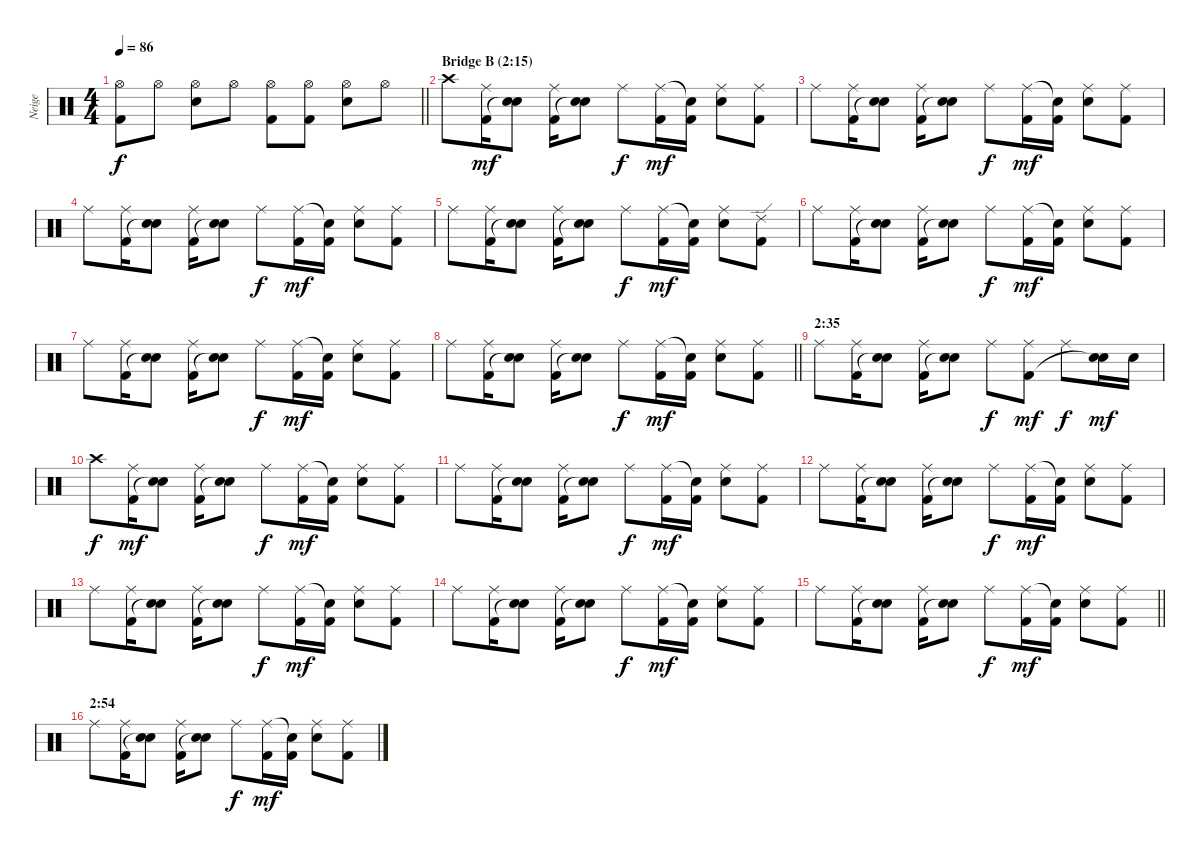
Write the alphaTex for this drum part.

\track ("Neige" "Neige") {instrument percussion}
\staff {score}
\articulation defaults
\ts (4 4)
\tempo 86
\clef neutral
\barLineRight lightlight
\ks c
("Hi-Hat (open)" "Kick (hit) 2").8{dy f} "Hi-Hat (open)".8 ("Snare (hit) 2" "Hi-Hat (open)").8 "Hi-Hat (open)".8 ("Hi-Hat (open)" "Kick (hit) 2").8 ("Hi-Hat (open)" "Kick (hit) 2").8 ("Snare (hit) 2" "Hi-Hat (open)").8 "Hi-Hat (open)".8 |
\section ("" "Bridge B (2:15)")
"Crash high (hit)".8 ("Ride (middle)" "Kick (hit) 2").16{dy mf} ("Snare (hit) 2" "Snare (hit)"{t}).8 ("Ride (middle)" "Kick (hit) 2").16 ("Snare (hit) 2" "Snare (hit)"{t}).8 "Ride (middle)".8{dy f} ("Ride (middle)" "Kick (hit) 2").16{dy mf} ("Snare (hit)"{t} "Kick (hit) 2").16 ("Snare (hit) 2" "Ride (middle)").8 ("Ride (middle)" "Kick (hit) 2").8 |
"Ride (middle)".8 ("Ride (middle)" "Kick (hit) 2").16 ("Snare (hit) 2" "Snare (hit)"{t}).8 ("Ride (middle)" "Kick (hit) 2").16 ("Snare (hit) 2" "Snare (hit)"{t}).8 "Ride (middle)".8{dy f} ("Ride (middle)" "Kick (hit) 2").16{dy mf} ("Snare (hit)"{t} "Kick (hit) 2").16 ("Snare (hit) 2" "Ride (middle)").8 ("Ride (middle)" "Kick (hit) 2").8 |
"Ride (middle)".8 ("Ride (middle)" "Kick (hit) 2").16 ("Snare (hit) 2" "Snare (hit)"{t}).8 ("Ride (middle)" "Kick (hit) 2").16 ("Snare (hit) 2" "Snare (hit)"{t}).8 "Ride (middle)".8{dy f} ("Ride (middle)" "Kick (hit) 2").16{dy mf} ("Snare (hit)"{t} "Kick (hit) 2").16 ("Snare (hit) 2" "Ride (middle)").8 ("Ride (middle)" "Kick (hit) 2").8 |
"Ride (middle)".8 ("Ride (middle)" "Kick (hit) 2").16 ("Snare (hit) 2" "Snare (hit)"{t}).8 ("Ride (middle)" "Kick (hit) 2").16 ("Snare (hit) 2" "Snare (hit)"{t}).8 "Ride (middle)".8{dy f} ("Ride (middle)" "Kick (hit) 2").16{dy mf} ("Snare (hit)"{t} "Kick (hit) 2").16 ("Snare (hit) 2" "Ride (middle)").8 ("Ride (edge) 2" "Kick (hit) 2").8 |
"Ride (middle)".8 ("Ride (middle)" "Kick (hit) 2").16 ("Snare (hit) 2" "Snare (hit)"{t}).8 ("Ride (middle)" "Kick (hit) 2").16 ("Snare (hit) 2" "Snare (hit)"{t}).8 "Ride (middle)".8{dy f} ("Ride (middle)" "Kick (hit) 2").16{dy mf} ("Snare (hit)"{t} "Kick (hit) 2").16 ("Snare (hit) 2" "Ride (middle)").8 ("Ride (middle)" "Kick (hit) 2").8 |
"Ride (middle)".8 ("Ride (middle)" "Kick (hit) 2").16 ("Snare (hit) 2" "Snare (hit)"{t}).8 ("Ride (middle)" "Kick (hit) 2").16 ("Snare (hit) 2" "Snare (hit)"{t}).8 "Ride (middle)".8{dy f} ("Ride (middle)" "Kick (hit) 2").16{dy mf} ("Snare (hit)"{t} "Kick (hit) 2").16 ("Snare (hit) 2" "Ride (middle)").8 ("Ride (middle)" "Kick (hit) 2").8 |
\barLineRight lightlight "Ride (middle)".8
("Ride (middle)" "Kick (hit) 2").16 ("Snare (hit) 2" "Snare (hit)"{t}).8 ("Ride (middle)" "Kick (hit) 2").16 ("Snare (hit) 2" "Snare (hit)"{t}).8 "Ride (middle)".8{dy f} ("Ride (middle)" "Kick (hit) 2").16{dy mf} ("Snare (hit)"{t} "Kick (hit) 2").16 ("Snare (hit) 2" "Ride (middle)").8 ("Ride (middle)" "Kick (hit) 2").8 |
\section ("" "2:35")
"Ride (middle)".8 ("Ride (middle)" "Kick (hit) 2").16 ("Snare (hit) 2" "Snare (hit)"{t}).8 ("Ride (middle)" "Kick (hit) 2").16 ("Snare (hit) 2" "Snare (hit)"{t}).8 "Ride (middle)".8{dy f} ("Ride (middle)" "Kick (hit) 2").8{dy mf} "Ride (middle)".8{dy f} ("Snare (hit) 2" "Snare (hit)"{t}).16{dy mf} "Snare (hit) 2".16 |
"Crash high (hit)".8{dy f} ("Ride (middle)" "Kick (hit) 2").16{dy mf} ("Snare (hit) 2" "Snare (hit)"{t}).8 ("Ride (middle)" "Kick (hit) 2").16 ("Snare (hit) 2" "Snare (hit)"{t}).8 "Ride (middle)".8{dy f} ("Ride (middle)" "Kick (hit) 2").16{dy mf} ("Snare (hit)"{t} "Kick (hit) 2").16 ("Snare (hit) 2" "Ride (middle)").8 ("Ride (middle)" "Kick (hit) 2").8 |
"Ride (middle)".8 ("Ride (middle)" "Kick (hit) 2").16 ("Snare (hit) 2" "Snare (hit)"{t}).8 ("Ride (middle)" "Kick (hit) 2").16 ("Snare (hit) 2" "Snare (hit)"{t}).8 "Ride (middle)".8{dy f} ("Ride (middle)" "Kick (hit) 2").16{dy mf} ("Snare (hit)"{t} "Kick (hit) 2").16 ("Snare (hit) 2" "Ride (middle)").8 ("Ride (middle)" "Kick (hit) 2").8 |
"Ride (middle)".8 ("Ride (middle)" "Kick (hit) 2").16 ("Snare (hit) 2" "Snare (hit)"{t}).8 ("Ride (middle)" "Kick (hit) 2").16 ("Snare (hit) 2" "Snare (hit)"{t}).8 "Ride (middle)".8{dy f} ("Ride (middle)" "Kick (hit) 2").16{dy mf} ("Snare (hit)"{t} "Kick (hit) 2").16 ("Snare (hit) 2" "Ride (middle)").8 ("Ride (middle)" "Kick (hit) 2").8 |
"Ride (middle)".8 ("Ride (middle)" "Kick (hit) 2").16 ("Snare (hit) 2" "Snare (hit)"{t}).8 ("Ride (middle)" "Kick (hit) 2").16 ("Snare (hit) 2" "Snare (hit)"{t}).8 "Ride (middle)".8{dy f} ("Ride (middle)" "Kick (hit) 2").16{dy mf} ("Snare (hit)"{t} "Kick (hit) 2").16 ("Snare (hit) 2" "Ride (middle)").8 ("Ride (middle)" "Kick (hit) 2").8 |
"Ride (middle)".8 ("Ride (middle)" "Kick (hit) 2").16 ("Snare (hit) 2" "Snare (hit)"{t}).8 ("Ride (middle)" "Kick (hit) 2").16 ("Snare (hit) 2" "Snare (hit)"{t}).8 "Ride (middle)".8{dy f} ("Ride (middle)" "Kick (hit) 2").16{dy mf} ("Snare (hit)"{t} "Kick (hit) 2").16 ("Snare (hit) 2" "Ride (middle)").8 ("Ride (middle)" "Kick (hit) 2").8 |
\barLineRight lightlight "Ride (middle)".8
("Ride (middle)" "Kick (hit) 2").16 ("Snare (hit) 2" "Snare (hit)"{t}).8 ("Ride (middle)" "Kick (hit) 2").16 ("Snare (hit) 2" "Snare (hit)"{t}).8 "Ride (middle)".8{dy f} ("Ride (middle)" "Kick (hit) 2").16{dy mf} ("Snare (hit)"{t} "Kick (hit) 2").16 ("Snare (hit) 2" "Ride (middle)").8 ("Ride (middle)" "Kick (hit) 2").8 |
\section ("" "2:54")
"Ride (middle)".8 ("Ride (middle)" "Kick (hit) 2").16 ("Snare (hit) 2" "Snare (hit)"{t}).8 ("Ride (middle)" "Kick (hit) 2").16 ("Snare (hit) 2" "Snare (hit)"{t}).8 "Ride (middle)".8{dy f} ("Ride (middle)" "Kick (hit) 2").16{dy mf} ("Snare (hit)"{t} "Kick (hit) 2").16 ("Snare (hit) 2" "Ride (middle)").8 ("Ride (middle)" "Kick (hit) 2").8
